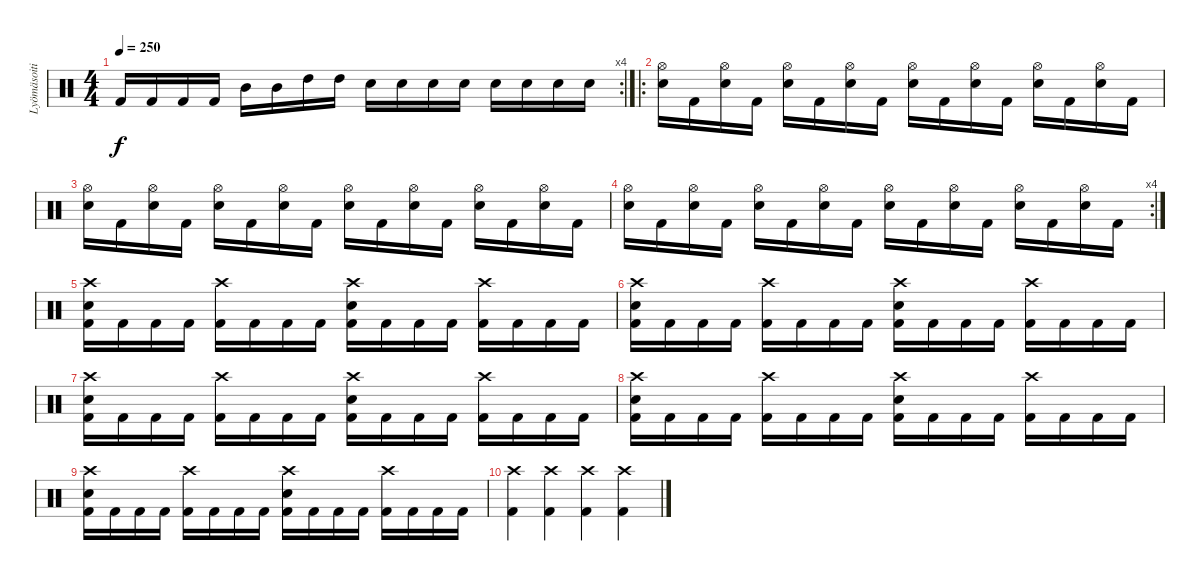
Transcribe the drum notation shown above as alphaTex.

\track ("Lyömäsoitin" "Lyömäsoiti") {instrument percussion}
\staff {score}
\articulation defaults
\rc 4
\ts (4 4)
\tempo 250
\clef neutral
\ks c "Kick (hit) 2".16{dy f} "Kick (hit) 2".16 "Kick (hit) 2".16 "Kick (hit) 2".16 "Mid Tom (hit)".16 "Mid Tom (hit)".16 "High Tom (hit)".16 "High Tom (hit)".16 "Electric Snare (hit)".16 "Electric Snare (hit)".16 "Electric Snare (hit)".16 "Electric Snare (hit)".16 "Electric Snare (hit)".16 "Electric Snare (hit)".16 "Electric Snare (hit)".16 "Electric Snare (hit)".16
|
\ro
("Hi-Hat (open)" "Electric Snare (hit)").16 "Kick (hit) 2".16 ("Hi-Hat (open)" "Electric Snare (hit)").16 "Kick (hit) 2".16 ("Hi-Hat (open)" "Electric Snare (hit)").16 "Kick (hit) 2".16 ("Hi-Hat (open)" "Electric Snare (hit)").16 "Kick (hit) 2".16 ("Hi-Hat (open)" "Electric Snare (hit)").16 "Kick (hit) 2".16 ("Hi-Hat (open)" "Electric Snare (hit)").16 "Kick (hit) 2".16 ("Hi-Hat (open)" "Electric Snare (hit)").16 "Kick (hit) 2".16 ("Hi-Hat (open)" "Electric Snare (hit)").16 "Kick (hit) 2".16 |
("Hi-Hat (open)" "Electric Snare (hit)").16 "Kick (hit) 2".16 ("Hi-Hat (open)" "Electric Snare (hit)").16 "Kick (hit) 2".16 ("Hi-Hat (open)" "Electric Snare (hit)").16 "Kick (hit) 2".16 ("Hi-Hat (open)" "Electric Snare (hit)").16 "Kick (hit) 2".16 ("Hi-Hat (open)" "Electric Snare (hit)").16 "Kick (hit) 2".16 ("Hi-Hat (open)" "Electric Snare (hit)").16 "Kick (hit) 2".16 ("Hi-Hat (open)" "Electric Snare (hit)").16 "Kick (hit) 2".16 ("Hi-Hat (open)" "Electric Snare (hit)").16 "Kick (hit) 2".16 |
\rc 4
("Hi-Hat (open)" "Electric Snare (hit)").16 "Kick (hit) 2".16 ("Hi-Hat (open)" "Electric Snare (hit)").16 "Kick (hit) 2".16 ("Hi-Hat (open)" "Electric Snare (hit)").16 "Kick (hit) 2".16 ("Hi-Hat (open)" "Electric Snare (hit)").16 "Kick (hit) 2".16 ("Hi-Hat (open)" "Electric Snare (hit)").16 "Kick (hit) 2".16 ("Hi-Hat (open)" "Electric Snare (hit)").16 "Kick (hit) 2".16 ("Hi-Hat (open)" "Electric Snare (hit)").16 "Kick (hit) 2".16 ("Hi-Hat (open)" "Electric Snare (hit)").16 "Kick (hit) 2".16 |
("Crash high (hit)" "Electric Snare (hit)" "Kick (hit) 2").16 "Kick (hit) 2".16 "Kick (hit) 2".16 "Kick (hit) 2".16 ("Crash high (hit)" "Kick (hit) 2").16 "Kick (hit) 2".16 "Kick (hit) 2".16 "Kick (hit) 2".16 ("Crash high (hit)" "Electric Snare (hit)" "Kick (hit) 2").16 "Kick (hit) 2".16 "Kick (hit) 2".16 "Kick (hit) 2".16 ("Crash high (hit)" "Kick (hit) 2").16 "Kick (hit) 2".16 "Kick (hit) 2".16 "Kick (hit) 2".16 |
("Crash high (hit)" "Electric Snare (hit)" "Kick (hit) 2").16 "Kick (hit) 2".16 "Kick (hit) 2".16 "Kick (hit) 2".16 ("Crash high (hit)" "Kick (hit) 2").16 "Kick (hit) 2".16 "Kick (hit) 2".16 "Kick (hit) 2".16 ("Crash high (hit)" "Electric Snare (hit)" "Kick (hit) 2").16 "Kick (hit) 2".16 "Kick (hit) 2".16 "Kick (hit) 2".16 ("Crash high (hit)" "Kick (hit) 2").16 "Kick (hit) 2".16 "Kick (hit) 2".16 "Kick (hit) 2".16 |
("Crash high (hit)" "Electric Snare (hit)" "Kick (hit) 2").16 "Kick (hit) 2".16 "Kick (hit) 2".16 "Kick (hit) 2".16 ("Crash high (hit)" "Kick (hit) 2").16 "Kick (hit) 2".16 "Kick (hit) 2".16 "Kick (hit) 2".16 ("Crash high (hit)" "Electric Snare (hit)" "Kick (hit) 2").16 "Kick (hit) 2".16 "Kick (hit) 2".16 "Kick (hit) 2".16 ("Crash high (hit)" "Kick (hit) 2").16 "Kick (hit) 2".16 "Kick (hit) 2".16 "Kick (hit) 2".16 |
("Crash high (hit)" "Electric Snare (hit)" "Kick (hit) 2").16 "Kick (hit) 2".16 "Kick (hit) 2".16 "Kick (hit) 2".16 ("Crash high (hit)" "Kick (hit) 2").16 "Kick (hit) 2".16 "Kick (hit) 2".16 "Kick (hit) 2".16 ("Crash high (hit)" "Electric Snare (hit)" "Kick (hit) 2").16 "Kick (hit) 2".16 "Kick (hit) 2".16 "Kick (hit) 2".16 ("Crash high (hit)" "Kick (hit) 2").16 "Kick (hit) 2".16 "Kick (hit) 2".16 "Kick (hit) 2".16 |
("Crash high (hit)" "Electric Snare (hit)" "Kick (hit) 2").16 "Kick (hit) 2".16 "Kick (hit) 2".16 "Kick (hit) 2".16 ("Crash high (hit)" "Kick (hit) 2").16 "Kick (hit) 2".16 "Kick (hit) 2".16 "Kick (hit) 2".16 ("Crash high (hit)" "Electric Snare (hit)" "Kick (hit) 2").16 "Kick (hit) 2".16 "Kick (hit) 2".16 "Kick (hit) 2".16 ("Crash high (hit)" "Kick (hit) 2").16 "Kick (hit) 2".16 "Kick (hit) 2".16 "Kick (hit) 2".16 |
("Crash high (hit)" "Kick (hit) 2").4 ("Crash high (hit)" "Kick (hit) 2").4 ("Crash high (hit)" "Kick (hit) 2").4 ("Crash high (hit)" "Kick (hit) 2").4
